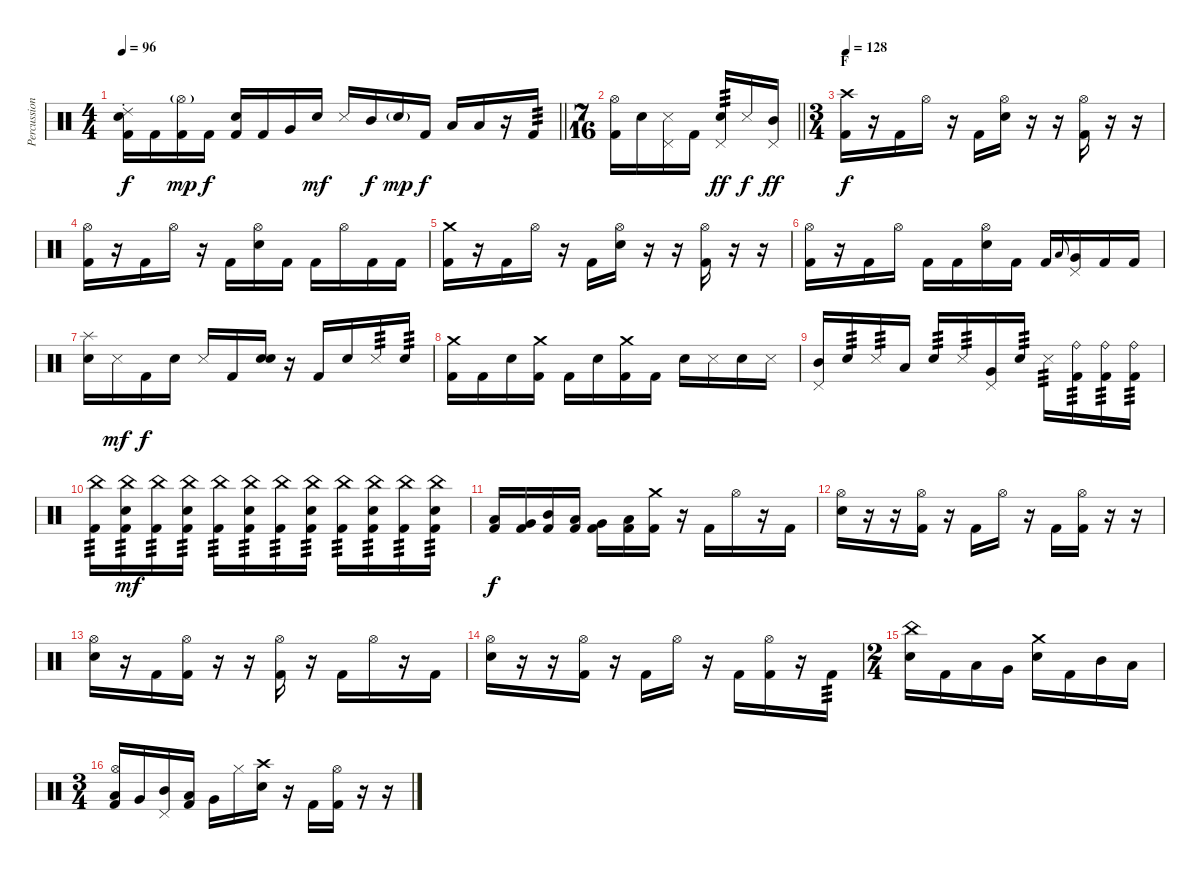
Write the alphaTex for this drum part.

\track ("Percussion" "Percussion") {instrument percussion}
\staff {score}
\articulation defaults
\ts (4 4)
\tempo 96
\clef neutral
\barLineRight lightlight
\ks c
("Ride (choke) 2" "Snare (hit) 2" "Kick (hit) 2").16{dy f} "Kick (hit) 2".16 ("Hi-Hat (open)"{g} "Kick (hit) 2").16{dy mp} "Kick (hit) 2".16{dy f} ("Snare (hit)" "Kick (hit) 2").16 "Kick (hit) 2".16 "Very Low Tom (hit)".16 "Snare (hit) 2".16{dy mf} "Metronome (hit)".16 "Mid Tom (hit)".16{dy f} "Snare (hit) 2"{g}.16{dy mp} "Kick (hit) 2".16{dy f} "Low Tom (hit)".16 "Low Tom (hit)".16 r.16 "Kick (hit) 2".16{tp 3} |
\ts (7 16)
\barLineRight lightlight
("Hi-Hat (open)" "Kick (hit) 2").16 "Snare (hit) 2".16 ("Pedal Hi-Hat (hit)" "Metronome (hit)").16 "Kick (hit) 2".16 ("Pedal Hi-Hat (hit)" "Snare (hit) 2").16{tp 3 dy ff} "Metronome (hit)".16{dy f} ("Pedal Hi-Hat (hit)" "Mid Tom (hit)").16{dy ff} |
\ts (3 4)
\section ("" "F")
\tempo 128
("Crash high (hit)" "Kick (hit) 2").16{dy f} r.16 "Kick (hit) 2".16 "Hi-Hat (open)".16 r.16 "Kick (hit) 2".16 ("Hi-Hat (open)" "Snare (hit) 2").16 r.16 r.16 ("Hi-Hat (open)" "Kick (hit) 2").16 r.16 r.16 |
("Hi-Hat (open)" "Kick (hit) 2").16 r.16 "Kick (hit) 2".16 "Hi-Hat (open)".16 r.16 "Kick (hit) 2".16 ("Hi-Hat (open)" "Snare (hit) 2").16 "Kick (hit) 2".16 "Kick (hit) 2".16 "Hi-Hat (open)".16 "Kick (hit) 2".16 "Kick (hit) 2".16 |
("Crash medium (hit)" "Kick (hit) 2").16 r.16 "Kick (hit) 2".16 "Hi-Hat (open)".16 r.16 "Kick (hit) 2".16 ("Hi-Hat (open)" "Snare (hit) 2").16 r.16 r.16 ("Hi-Hat (open)" "Kick (hit) 2").16 r.16 r.16 |
("Hi-Hat (open)" "Kick (hit) 2").16 r.16 "Kick (hit) 2".16 "Hi-Hat (open)".16 "Kick (hit) 2".16 "Kick (hit) 2".16 ("Hi-Hat (open)" "Snare (hit) 2").16 "Kick (hit) 2".16 "Kick (hit) 2".16 "Low Tom (hit)".8{gr onbeat} ("Pedal Hi-Hat (hit)" "Very Low Tom (hit)").16 "Kick (hit) 2".16 "Kick (hit) 2".16 |
("Splash (hit)" "Snare (hit) 2").16 "Metronome (hit)".16{dy mf} "Kick (hit) 2".16{dy f} "Snare (hit) 2".16 "Metronome (hit)".16 "Kick (hit) 2".16 ("Snare (hit)" "Snare (hit) 2").16 r.16 "Kick (hit) 2".16 "Snare (hit) 2".16 "Metronome (hit)".16{tp 3} "Snare (hit) 2".16{tp 3} |
("Crash medium (hit)" "Kick (hit) 2").16 "Kick (hit) 2".16 "Snare (hit) 2".16 ("Crash medium (hit)" "Kick (hit) 2").16 "Kick (hit) 2".16 "Snare (hit) 2".16 ("Crash medium (hit)" "Kick (hit) 2").16 "Kick (hit) 2".16 "Snare (hit) 2".16 "Metronome (hit)".16 "Snare (hit) 2".16 "Metronome (hit)".16 |
("Pedal Hi-Hat (hit)" "Mid Tom (hit)").16 "Snare (hit) 2".16{tp 3} "Metronome (hit)".16{tp 3} "Low Tom (hit)".16 "Snare (hit) 2".16{tp 3} "Metronome (hit)".16{tp 3} ("Pedal Hi-Hat (hit)" "Very Low Tom (hit)").16 "Snare (hit) 2".16{tp 3} "Metronome (hit)".16{tp 3} ("Ride (bell)" "Kick (hit) 2").16{tp 3} ("Ride (bell)" "Kick (hit) 2").16{tp 3} ("Ride (bell)" "Kick (hit) 2").16{tp 3} |
("China (hit)" "Kick (hit) 2").16{tp 3} ("China (hit)" "Snare (hit) 2" "Kick (hit) 2").16{tp 3 dy mf} ("China (hit)" "Kick (hit) 2").16{tp 3} ("China (hit)" "Snare (hit) 2" "Kick (hit) 2").16{tp 3} ("China (hit)" "Kick (hit) 2").16{tp 3} ("China (hit)" "Snare (hit) 2" "Kick (hit) 2").16{tp 3} ("China (hit)" "Kick (hit) 2").16{tp 3} ("China (hit)" "Snare (hit) 2" "Kick (hit) 2").16{tp 3} ("China (hit)" "Kick (hit) 2").16{tp 3} ("China (hit)" "Snare (hit) 2" "Kick (hit) 2").16{tp 3} ("China (hit)" "Kick (hit) 2").16{tp 3} ("China (hit)" "Snare (hit) 2" "Kick (hit) 2").16{tp 3} |
("Low Tom (hit)" "Kick (hit) 2").16{dy f} ("Very Low Tom (hit)" "Kick (hit) 2").16 ("Mid Tom (hit)" "Kick (hit) 2").16 ("Low Tom (hit)" "Kick (hit) 2").16 ("Very Low Tom (hit)" "Kick (hit) 2").16 ("Low Floor Tom (hit)" "Kick (hit) 2").16 ("Crash medium (hit)" "Kick (hit) 2").16 r.16 "Kick (hit) 2".16 "Hi-Hat (open)".16 r.16 "Kick (hit) 2".16 |
("Hi-Hat (open)" "Snare (hit) 2").16 r.16 r.16 ("Hi-Hat (open)" "Kick (hit) 2").16 r.16 "Kick (hit) 2".16 "Hi-Hat (open)".16 r.16 "Kick (hit) 2".16 ("Hi-Hat (open)" "Kick (hit) 2").16 r.16 r.16 |
("Hi-Hat (open)" "Snare (hit) 2").16 r.16 "Kick (hit) 2".16 ("Hi-Hat (open)" "Kick (hit) 2").16 r.16 r.16 ("Hi-Hat (open)" "Kick (hit) 2").16 r.16 "Kick (hit) 2".16 "Hi-Hat (open)".16 r.16 "Kick (hit) 2".16 |
("Hi-Hat (open)" "Snare (hit) 2").16 r.16 r.16 ("Hi-Hat (open)" "Kick (hit) 2").16 r.16 "Kick (hit) 2".16 "Hi-Hat (open)".16 r.16 "Kick (hit) 2".16 ("Hi-Hat (open)" "Kick (hit) 2").16 r.16 "Kick (hit) 2".16{tp 3} |
\ts (2 4)
("China (hit)" "Snare (hit) 2").16 "Kick (hit) 2".16 "Low Tom (hit)".16 "Very Low Tom (hit)".16 ("Crash medium (hit)" "Snare (hit) 2").16 "Kick (hit) 2".16 "Mid Tom (hit)".16 "Low Floor Tom (hit)".16 |
\ts (3 4)
("Hi-Hat (open)" "Low Tom (hit)" "Kick (hit) 2").16 "Very Low Tom (hit)".16 ("Pedal Hi-Hat (hit)" "Mid Tom (hit)").16 ("Low Tom (hit)" "Kick (hit) 2").16 "Very Low Tom (hit)".16 "Hi-Hat (closed)".16 ("Crash high (hit)" "Snare (hit) 2").16 r.16 "Kick (hit) 2".16 ("Hi-Hat (open)" "Kick (hit) 2").16 r.16 r.16
